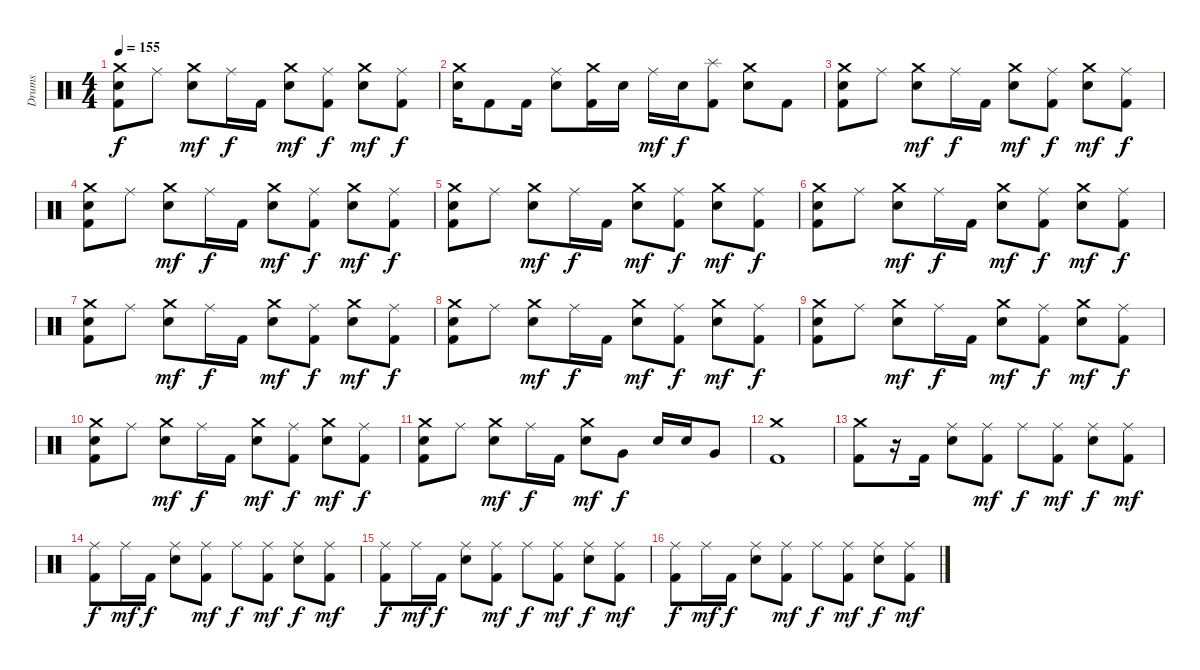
\track ("Drums" "Drums") {instrument percussion}
\staff {score}
\articulation defaults
\ts (4 4)
\tempo 155
\clef neutral
\ks c
("Crash medium (hit)" "Snare (hit) 2" "Kick (hit) 2").8{dy f} "Ride (middle)".8 ("Crash medium (hit)" "Snare (hit) 2").8{dy mf} "Ride (middle)".16{dy f} "Kick (hit) 2".16 ("Crash medium (hit)" "Snare (hit) 2").8{dy mf} ("Ride (middle)" "Kick (hit) 2").8{dy f} ("Crash medium (hit)" "Snare (hit) 2").8{dy mf} ("Ride (middle)" "Kick (hit) 2").8{dy f} |
("Snare (hit) 2" "Crash medium (hit)").16 "Kick (hit) 2".8 "Kick (hit) 2".16 ("Ride (middle)" "Snare (hit) 2").8 ("Kick (hit) 2" "Crash medium (hit)").16 "Snare (hit) 2".16 "Ride (middle)".16{dy mf} "Snare (hit) 2".16{dy f} ("Kick (hit) 2" "Splash (hit)").8 ("Snare (hit) 2" "Crash medium (hit)").8 "Kick (hit) 2".8 |
("Crash medium (hit)" "Snare (hit) 2" "Kick (hit) 2").8 "Ride (middle)".8 ("Crash medium (hit)" "Snare (hit) 2").8{dy mf} "Ride (middle)".16{dy f} "Kick (hit) 2".16 ("Crash medium (hit)" "Snare (hit) 2").8{dy mf} ("Ride (middle)" "Kick (hit) 2").8{dy f} ("Crash medium (hit)" "Snare (hit) 2").8{dy mf} ("Ride (middle)" "Kick (hit) 2").8{dy f} |
("Crash medium (hit)" "Snare (hit) 2" "Kick (hit) 2").8 "Ride (middle)".8 ("Crash medium (hit)" "Snare (hit) 2").8{dy mf} "Ride (middle)".16{dy f} "Kick (hit) 2".16 ("Crash medium (hit)" "Snare (hit) 2").8{dy mf} ("Ride (middle)" "Kick (hit) 2").8{dy f} ("Crash medium (hit)" "Snare (hit) 2").8{dy mf} ("Ride (middle)" "Kick (hit) 2").8{dy f} |
("Crash medium (hit)" "Snare (hit) 2" "Kick (hit) 2").8 "Ride (middle)".8 ("Crash medium (hit)" "Snare (hit) 2").8{dy mf} "Ride (middle)".16{dy f} "Kick (hit) 2".16 ("Crash medium (hit)" "Snare (hit) 2").8{dy mf} ("Ride (middle)" "Kick (hit) 2").8{dy f} ("Crash medium (hit)" "Snare (hit) 2").8{dy mf} ("Ride (middle)" "Kick (hit) 2").8{dy f} |
("Crash medium (hit)" "Snare (hit) 2" "Kick (hit) 2").8 "Ride (middle)".8 ("Crash medium (hit)" "Snare (hit) 2").8{dy mf} "Ride (middle)".16{dy f} "Kick (hit) 2".16 ("Crash medium (hit)" "Snare (hit) 2").8{dy mf} ("Ride (middle)" "Kick (hit) 2").8{dy f} ("Crash medium (hit)" "Snare (hit) 2").8{dy mf} ("Ride (middle)" "Kick (hit) 2").8{dy f} |
("Crash medium (hit)" "Snare (hit) 2" "Kick (hit) 2").8 "Ride (middle)".8 ("Crash medium (hit)" "Snare (hit) 2").8{dy mf} "Ride (middle)".16{dy f} "Kick (hit) 2".16 ("Crash medium (hit)" "Snare (hit) 2").8{dy mf} ("Ride (middle)" "Kick (hit) 2").8{dy f} ("Crash medium (hit)" "Snare (hit) 2").8{dy mf} ("Ride (middle)" "Kick (hit) 2").8{dy f} |
("Crash medium (hit)" "Snare (hit) 2" "Kick (hit) 2").8 "Ride (middle)".8 ("Crash medium (hit)" "Snare (hit) 2").8{dy mf} "Ride (middle)".16{dy f} "Kick (hit) 2".16 ("Crash medium (hit)" "Snare (hit) 2").8{dy mf} ("Ride (middle)" "Kick (hit) 2").8{dy f} ("Crash medium (hit)" "Snare (hit) 2").8{dy mf} ("Ride (middle)" "Kick (hit) 2").8{dy f} |
("Crash medium (hit)" "Snare (hit) 2" "Kick (hit) 2").8 "Ride (middle)".8 ("Crash medium (hit)" "Snare (hit) 2").8{dy mf} "Ride (middle)".16{dy f} "Kick (hit) 2".16 ("Crash medium (hit)" "Snare (hit) 2").8{dy mf} ("Ride (middle)" "Kick (hit) 2").8{dy f} ("Crash medium (hit)" "Snare (hit) 2").8{dy mf} ("Ride (middle)" "Kick (hit) 2").8{dy f} |
("Crash medium (hit)" "Snare (hit) 2" "Kick (hit) 2").8 "Ride (middle)".8 ("Crash medium (hit)" "Snare (hit) 2").8{dy mf} "Ride (middle)".16{dy f} "Kick (hit) 2".16 ("Crash medium (hit)" "Snare (hit) 2").8{dy mf} ("Ride (middle)" "Kick (hit) 2").8{dy f} ("Crash medium (hit)" "Snare (hit) 2").8{dy mf} ("Ride (middle)" "Kick (hit) 2").8{dy f} |
("Crash medium (hit)" "Snare (hit) 2" "Kick (hit) 2").8 "Ride (middle)".8 ("Crash medium (hit)" "Snare (hit) 2").8{dy mf} "Ride (middle)".16{dy f} "Kick (hit) 2".16 ("Crash medium (hit)" "Snare (hit) 2").8{dy mf} "Very Low Tom (hit)".8{dy f} "Snare (hit) 2".16 "Snare (hit) 2".16 "Very Low Tom (hit)".8 |
("Kick (hit) 2" "Crash medium (hit)").1 |
("Kick (hit) 2" "Crash medium (hit)").8 r.16 "Kick (hit) 2".16 ("Snare (hit) 2" "Ride (middle)").8 ("Ride (middle)" "Kick (hit) 2").8{dy mf} "Ride (middle)".8{dy f} ("Kick (hit) 2" "Ride (middle)").8{dy mf} ("Snare (hit) 2" "Ride (middle)").8{dy f} ("Ride (middle)" "Kick (hit) 2").8{dy mf} |
("Kick (hit) 2" "Ride (middle)").8{dy f} "Ride (middle)".16{dy mf} "Kick (hit) 2".16{dy f} ("Snare (hit) 2" "Ride (middle)").8 ("Ride (middle)" "Kick (hit) 2").8{dy mf} "Ride (middle)".8{dy f} ("Kick (hit) 2" "Ride (middle)").8{dy mf} ("Snare (hit) 2" "Ride (middle)").8{dy f} ("Ride (middle)" "Kick (hit) 2").8{dy mf} |
("Kick (hit) 2" "Ride (middle)").8{dy f} "Ride (middle)".16{dy mf} "Kick (hit) 2".16{dy f} ("Snare (hit) 2" "Ride (middle)").8 ("Ride (middle)" "Kick (hit) 2").8{dy mf} "Ride (middle)".8{dy f} ("Kick (hit) 2" "Ride (middle)").8{dy mf} ("Snare (hit) 2" "Ride (middle)").8{dy f} ("Ride (middle)" "Kick (hit) 2").8{dy mf} |
("Kick (hit) 2" "Ride (middle)").8{dy f} "Ride (middle)".16{dy mf} "Kick (hit) 2".16{dy f} ("Snare (hit) 2" "Ride (middle)").8 ("Ride (middle)" "Kick (hit) 2").8{dy mf} "Ride (middle)".8{dy f} ("Kick (hit) 2" "Ride (middle)").8{dy mf} ("Snare (hit) 2" "Ride (middle)").8{dy f} ("Ride (middle)" "Kick (hit) 2").8{dy mf}
